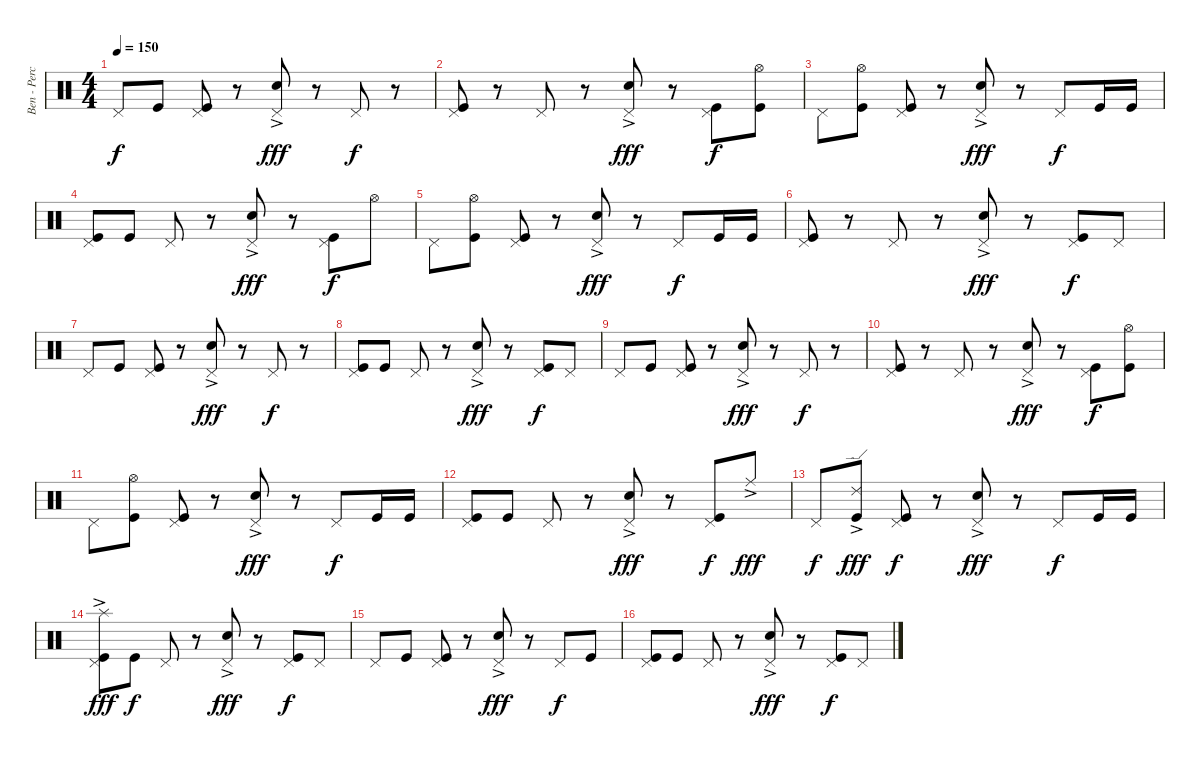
\track ("Ben - Perception Twin - Drums" "Ben - Perc") {instrument percussion}
\staff {score}
\articulation defaults
\ts (4 4)
\tempo 150
\clef neutral
\ks c "Pedal Hi-Hat (hit)".8{dy f} "Kick (hit)".8
("Pedal Hi-Hat (hit)" "Kick (hit)").8 r.8 ("Pedal Hi-Hat (hit)" "Electric Snare (hit)"{ac}).8{dy fff} r.8 "Pedal Hi-Hat (hit)".8{dy f} r.8 |
("Pedal Hi-Hat (hit)" "Kick (hit)").8 r.8 "Pedal Hi-Hat (hit)".8 r.8 ("Pedal Hi-Hat (hit)" "Electric Snare (hit)"{ac}).8{dy fff} r.8 ("Pedal Hi-Hat (hit)" "Kick (hit)").8{dy f} ("Hi-Hat (open)" "Kick (hit)").8 |
"Pedal Hi-Hat (hit)".8 ("Hi-Hat (open)" "Kick (hit)").8 ("Pedal Hi-Hat (hit)" "Kick (hit)").8 r.8 ("Pedal Hi-Hat (hit)" "Electric Snare (hit)"{ac}).8{dy fff} r.8 "Pedal Hi-Hat (hit)".8{dy f} "Kick (hit)".16 "Kick (hit)".16 |
("Pedal Hi-Hat (hit)" "Kick (hit)").8 "Kick (hit)".8 "Pedal Hi-Hat (hit)".8 r.8 ("Pedal Hi-Hat (hit)" "Electric Snare (hit)"{ac}).8{dy fff} r.8 ("Pedal Hi-Hat (hit)" "Kick (hit)").8{dy f} "Hi-Hat (open)".8 |
"Pedal Hi-Hat (hit)".8 ("Hi-Hat (open)" "Kick (hit)").8 ("Pedal Hi-Hat (hit)" "Kick (hit)").8 r.8 ("Pedal Hi-Hat (hit)" "Electric Snare (hit)"{ac}).8{dy fff} r.8 "Pedal Hi-Hat (hit)".8{dy f} "Kick (hit)".16 "Kick (hit)".16 |
("Pedal Hi-Hat (hit)" "Kick (hit)").8 r.8 "Pedal Hi-Hat (hit)".8 r.8 ("Pedal Hi-Hat (hit)" "Electric Snare (hit)"{ac}).8{dy fff} r.8 ("Pedal Hi-Hat (hit)" "Kick (hit)").8{dy f} "Pedal Hi-Hat (hit)".8 |
"Pedal Hi-Hat (hit)".8 "Kick (hit)".8 ("Pedal Hi-Hat (hit)" "Kick (hit)").8 r.8 ("Pedal Hi-Hat (hit)" "Electric Snare (hit)"{ac}).8{dy fff} r.8 "Pedal Hi-Hat (hit)".8{dy f} r.8 |
("Pedal Hi-Hat (hit)" "Kick (hit)").8 "Kick (hit)".8 "Pedal Hi-Hat (hit)".8 r.8 ("Pedal Hi-Hat (hit)" "Electric Snare (hit)"{ac}).8{dy fff} r.8 ("Pedal Hi-Hat (hit)" "Kick (hit)").8{dy f} "Pedal Hi-Hat (hit)".8 |
"Pedal Hi-Hat (hit)".8 "Kick (hit)".8 ("Pedal Hi-Hat (hit)" "Kick (hit)").8 r.8 ("Pedal Hi-Hat (hit)" "Electric Snare (hit)"{ac}).8{dy fff} r.8 "Pedal Hi-Hat (hit)".8{dy f} r.8 |
("Pedal Hi-Hat (hit)" "Kick (hit)").8 r.8 "Pedal Hi-Hat (hit)".8 r.8 ("Pedal Hi-Hat (hit)" "Electric Snare (hit)"{ac}).8{dy fff} r.8 ("Pedal Hi-Hat (hit)" "Kick (hit)").8{dy f} ("Hi-Hat (open)" "Kick (hit)").8 |
"Pedal Hi-Hat (hit)".8 ("Hi-Hat (open)" "Kick (hit)").8 ("Pedal Hi-Hat (hit)" "Kick (hit)").8 r.8 ("Pedal Hi-Hat (hit)" "Electric Snare (hit)"{ac}).8{dy fff} r.8 "Pedal Hi-Hat (hit)".8{dy f} "Kick (hit)".16 "Kick (hit)".16 |
("Pedal Hi-Hat (hit)" "Kick (hit)").8 "Kick (hit)".8 "Pedal Hi-Hat (hit)".8 r.8 ("Pedal Hi-Hat (hit)" "Electric Snare (hit)"{ac}).8{dy fff} r.8 ("Pedal Hi-Hat (hit)" "Kick (hit)").8{dy f} "Ride (middle)"{ac}.8{dy fff} |
"Pedal Hi-Hat (hit)".8{dy f} ("Ride (edge) 2"{ac} "Kick (hit)").8{dy fff} ("Pedal Hi-Hat (hit)" "Kick (hit)").8{dy f} r.8 ("Pedal Hi-Hat (hit)" "Electric Snare (hit)"{ac}).8{dy fff} r.8 "Pedal Hi-Hat (hit)".8{dy f} "Kick (hit)".16 "Kick (hit)".16 |
("Pedal Hi-Hat (hit)" "Splash (hit)"{ac} "Kick (hit)").8{dy fff} "Kick (hit)".8{dy f} "Pedal Hi-Hat (hit)".8 r.8 ("Pedal Hi-Hat (hit)" "Electric Snare (hit)"{ac}).8{dy fff} r.8 ("Pedal Hi-Hat (hit)" "Kick (hit)").8{dy f} "Pedal Hi-Hat (hit)".8 |
"Pedal Hi-Hat (hit)".8 "Kick (hit)".8 ("Pedal Hi-Hat (hit)" "Kick (hit)").8 r.8 ("Pedal Hi-Hat (hit)" "Electric Snare (hit)"{ac}).8{dy fff} r.8 "Pedal Hi-Hat (hit)".8{dy f} "Kick (hit)".8 |
("Pedal Hi-Hat (hit)" "Kick (hit)").8 "Kick (hit)".8 "Pedal Hi-Hat (hit)".8 r.8 ("Pedal Hi-Hat (hit)" "Electric Snare (hit)"{ac}).8{dy fff} r.8 ("Pedal Hi-Hat (hit)" "Kick (hit)").8{dy f} "Pedal Hi-Hat (hit)".8
